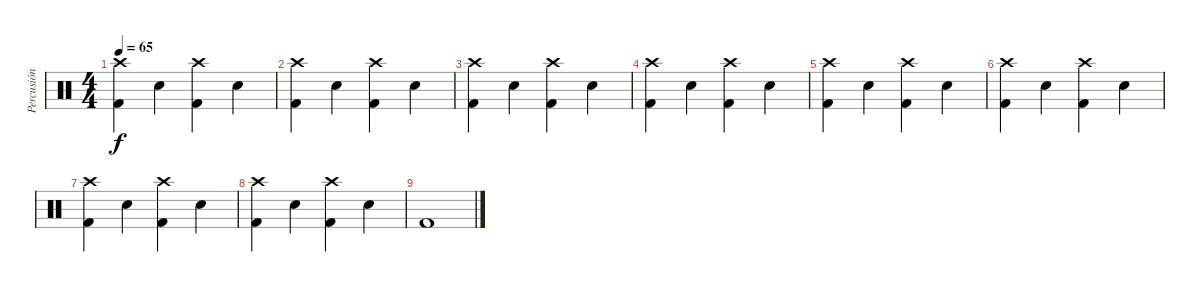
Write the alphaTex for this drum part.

\track ("Percusión" "Percusión") {instrument percussion}
\staff {score}
\articulation defaults
\ts (4 4)
\tempo 65
\clef neutral
\ks c
("Crash high (hit)" "Kick (hit) 2").4{dy f} "Snare (hit) 2".4 ("Crash high (hit)" "Kick (hit) 2").4 "Snare (hit) 2".4 |
("Crash high (hit)" "Kick (hit) 2").4 "Snare (hit) 2".4 ("Crash high (hit)" "Kick (hit) 2").4 "Snare (hit) 2".4 |
("Crash high (hit)" "Kick (hit) 2").4 "Snare (hit) 2".4 ("Crash high (hit)" "Kick (hit) 2").4 "Snare (hit) 2".4 |
("Crash high (hit)" "Kick (hit) 2").4 "Snare (hit) 2".4 ("Crash high (hit)" "Kick (hit) 2").4 "Snare (hit) 2".4 |
("Crash high (hit)" "Kick (hit) 2").4 "Snare (hit) 2".4 ("Crash high (hit)" "Kick (hit) 2").4 "Snare (hit) 2".4 |
("Crash high (hit)" "Kick (hit) 2").4 "Snare (hit) 2".4 ("Crash high (hit)" "Kick (hit) 2").4 "Snare (hit) 2".4 |
("Crash high (hit)" "Kick (hit) 2").4 "Snare (hit) 2".4 ("Crash high (hit)" "Kick (hit) 2").4 "Snare (hit) 2".4 |
("Crash high (hit)" "Kick (hit) 2").4 "Snare (hit) 2".4 ("Crash high (hit)" "Kick (hit) 2").4 "Snare (hit) 2".4 |
"Kick (hit) 2".1
